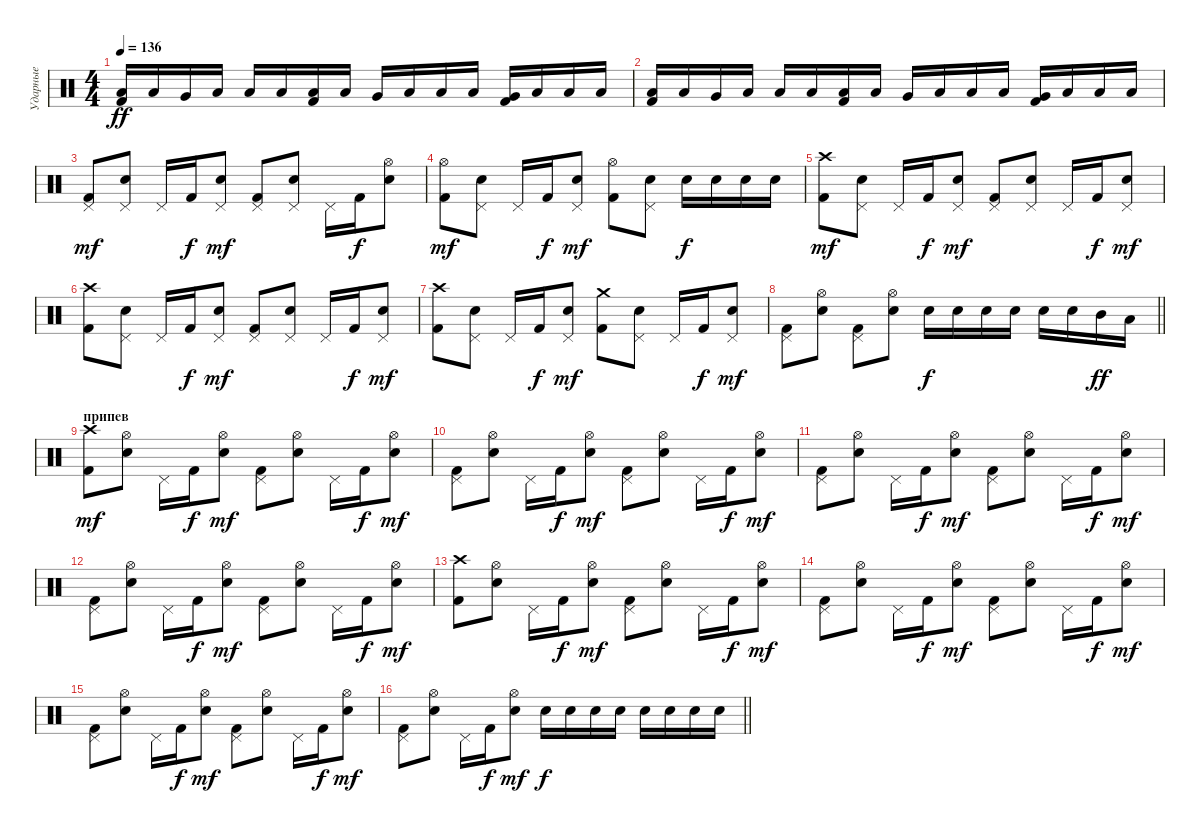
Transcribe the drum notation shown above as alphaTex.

\track ("Ударные" "Ударные") {instrument percussion}
\staff {score}
\articulation defaults
\ts (4 4)
\tempo 136
\clef neutral
\ks c
("Kick (hit) 2" "Low Floor Tom (hit)").16{dy ff} "Low Tom (hit)".16 "Very Low Tom (hit)".16 "Low Floor Tom (hit)".16 "Low Floor Tom (hit)".16 "Low Floor Tom (hit)".16 ("Kick (hit) 2" "Low Floor Tom (hit)").16 "Low Tom (hit)".16 "Very Low Tom (hit)".16 "Low Floor Tom (hit)".16 "Low Floor Tom (hit)".16 "Low Floor Tom (hit)".16 ("Kick (hit) 2" "Very Low Tom (hit)").16 "Low Floor Tom (hit)".16 "Low Floor Tom (hit)".16 "Low Floor Tom (hit)".16 |
("Kick (hit) 2" "Low Floor Tom (hit)").16 "Low Tom (hit)".16 "Very Low Tom (hit)".16 "Low Floor Tom (hit)".16 "Low Floor Tom (hit)".16 "Low Floor Tom (hit)".16 ("Kick (hit) 2" "Low Floor Tom (hit)").16 "Low Tom (hit)".16 "Very Low Tom (hit)".16 "Low Floor Tom (hit)".16 "Low Floor Tom (hit)".16 "Low Floor Tom (hit)".16 ("Kick (hit) 2" "Very Low Tom (hit)").16 "Low Floor Tom (hit)".16 "Low Floor Tom (hit)".16 "Low Floor Tom (hit)".16 |
("Kick (hit) 2" "Pedal Hi-Hat (hit)").8{dy mf} ("Electric Snare (hit)" "Pedal Hi-Hat (hit)").8 "Pedal Hi-Hat (hit)".16 "Kick (hit) 2".16{dy f} ("Electric Snare (hit)" "Pedal Hi-Hat (hit)").8{dy mf} ("Kick (hit) 2" "Pedal Hi-Hat (hit)").8 ("Electric Snare (hit)" "Pedal Hi-Hat (hit)").8 "Pedal Hi-Hat (hit)".16 "Kick (hit) 2".16{dy f} ("Electric Snare (hit)" "Hi-Hat (open)").8 |
("Kick (hit) 2" "Hi-Hat (open)").8{dy mf} ("Electric Snare (hit)" "Pedal Hi-Hat (hit)").8 "Pedal Hi-Hat (hit)".16 "Kick (hit) 2".16{dy f} ("Electric Snare (hit)" "Pedal Hi-Hat (hit)").8{dy mf} ("Kick (hit) 2" "Hi-Hat (open)").8 ("Electric Snare (hit)" "Pedal Hi-Hat (hit)").8 "Electric Snare (hit)".16{dy f} "Electric Snare (hit)".16 "Electric Snare (hit)".16 "Electric Snare (hit)".16 |
("Kick (hit) 2" "Crash high (hit)").8{dy mf} ("Electric Snare (hit)" "Pedal Hi-Hat (hit)").8 "Pedal Hi-Hat (hit)".16 "Kick (hit) 2".16{dy f} ("Electric Snare (hit)" "Pedal Hi-Hat (hit)").8{dy mf} ("Kick (hit) 2" "Pedal Hi-Hat (hit)").8 ("Electric Snare (hit)" "Pedal Hi-Hat (hit)").8 "Pedal Hi-Hat (hit)".16 "Kick (hit) 2".16{dy f} ("Electric Snare (hit)" "Pedal Hi-Hat (hit)").8{dy mf} |
("Kick (hit) 2" "Crash high (hit)").8 ("Electric Snare (hit)" "Pedal Hi-Hat (hit)").8 "Pedal Hi-Hat (hit)".16 "Kick (hit) 2".16{dy f} ("Electric Snare (hit)" "Pedal Hi-Hat (hit)").8{dy mf} ("Kick (hit) 2" "Pedal Hi-Hat (hit)").8 ("Electric Snare (hit)" "Pedal Hi-Hat (hit)").8 "Pedal Hi-Hat (hit)".16 "Kick (hit) 2".16{dy f} ("Electric Snare (hit)" "Pedal Hi-Hat (hit)").8{dy mf} |
("Kick (hit) 2" "Crash high (hit)").8 ("Electric Snare (hit)" "Pedal Hi-Hat (hit)").8 "Pedal Hi-Hat (hit)".16 "Kick (hit) 2".16{dy f} ("Electric Snare (hit)" "Pedal Hi-Hat (hit)").8{dy mf} ("Kick (hit) 2" "Crash medium (hit)").8 ("Electric Snare (hit)" "Pedal Hi-Hat (hit)").8 "Pedal Hi-Hat (hit)".16 "Kick (hit) 2".16{dy f} ("Electric Snare (hit)" "Pedal Hi-Hat (hit)").8{dy mf} |
\barLineRight lightlight
("Kick (hit) 2" "Pedal Hi-Hat (hit)").8 ("Electric Snare (hit)" "Hi-Hat (open)").8 ("Kick (hit) 2" "Pedal Hi-Hat (hit)").8 ("Electric Snare (hit)" "Hi-Hat (open)").8 "Electric Snare (hit)".16{dy f} "Electric Snare (hit)".16 "Electric Snare (hit)".16 "Electric Snare (hit)".16 "Electric Snare (hit)".16 "Electric Snare (hit)".16 "Mid Tom (hit)".16{dy ff} "Low Tom (hit)".16 |
\section ("" "припев")
("Kick (hit) 2" "Crash high (hit)").8{dy mf} ("Electric Snare (hit)" "Hi-Hat (open)").8 "Pedal Hi-Hat (hit)".16 "Kick (hit) 2".16{dy f} ("Electric Snare (hit)" "Hi-Hat (open)").8{dy mf} ("Kick (hit) 2" "Pedal Hi-Hat (hit)").8 ("Electric Snare (hit)" "Hi-Hat (open)").8 "Pedal Hi-Hat (hit)".16 "Kick (hit) 2".16{dy f} ("Electric Snare (hit)" "Hi-Hat (open)").8{dy mf} |
("Kick (hit) 2" "Pedal Hi-Hat (hit)").8 ("Electric Snare (hit)" "Hi-Hat (open)").8 "Pedal Hi-Hat (hit)".16 "Kick (hit) 2".16{dy f} ("Electric Snare (hit)" "Hi-Hat (open)").8{dy mf} ("Kick (hit) 2" "Pedal Hi-Hat (hit)").8 ("Electric Snare (hit)" "Hi-Hat (open)").8 "Pedal Hi-Hat (hit)".16 "Kick (hit) 2".16{dy f} ("Electric Snare (hit)" "Hi-Hat (open)").8{dy mf} |
("Kick (hit) 2" "Pedal Hi-Hat (hit)").8 ("Electric Snare (hit)" "Hi-Hat (open)").8 "Pedal Hi-Hat (hit)".16 "Kick (hit) 2".16{dy f} ("Electric Snare (hit)" "Hi-Hat (open)").8{dy mf} ("Kick (hit) 2" "Pedal Hi-Hat (hit)").8 ("Electric Snare (hit)" "Hi-Hat (open)").8 "Pedal Hi-Hat (hit)".16 "Kick (hit) 2".16{dy f} ("Electric Snare (hit)" "Hi-Hat (open)").8{dy mf} |
("Kick (hit) 2" "Pedal Hi-Hat (hit)").8 ("Electric Snare (hit)" "Hi-Hat (open)").8 "Pedal Hi-Hat (hit)".16 "Kick (hit) 2".16{dy f} ("Electric Snare (hit)" "Hi-Hat (open)").8{dy mf} ("Kick (hit) 2" "Pedal Hi-Hat (hit)").8 ("Electric Snare (hit)" "Hi-Hat (open)").8 "Pedal Hi-Hat (hit)".16 "Kick (hit) 2".16{dy f} ("Electric Snare (hit)" "Hi-Hat (open)").8{dy mf} |
("Kick (hit) 2" "Crash high (hit)").8 ("Electric Snare (hit)" "Hi-Hat (open)").8 "Pedal Hi-Hat (hit)".16 "Kick (hit) 2".16{dy f} ("Electric Snare (hit)" "Hi-Hat (open)").8{dy mf} ("Kick (hit) 2" "Pedal Hi-Hat (hit)").8 ("Electric Snare (hit)" "Hi-Hat (open)").8 "Pedal Hi-Hat (hit)".16 "Kick (hit) 2".16{dy f} ("Electric Snare (hit)" "Hi-Hat (open)").8{dy mf} |
("Kick (hit) 2" "Pedal Hi-Hat (hit)").8 ("Electric Snare (hit)" "Hi-Hat (open)").8 "Pedal Hi-Hat (hit)".16 "Kick (hit) 2".16{dy f} ("Electric Snare (hit)" "Hi-Hat (open)").8{dy mf} ("Kick (hit) 2" "Pedal Hi-Hat (hit)").8 ("Electric Snare (hit)" "Hi-Hat (open)").8 "Pedal Hi-Hat (hit)".16 "Kick (hit) 2".16{dy f} ("Electric Snare (hit)" "Hi-Hat (open)").8{dy mf} |
("Kick (hit) 2" "Pedal Hi-Hat (hit)").8 ("Electric Snare (hit)" "Hi-Hat (open)").8 "Pedal Hi-Hat (hit)".16 "Kick (hit) 2".16{dy f} ("Electric Snare (hit)" "Hi-Hat (open)").8{dy mf} ("Kick (hit) 2" "Pedal Hi-Hat (hit)").8 ("Electric Snare (hit)" "Hi-Hat (open)").8 "Pedal Hi-Hat (hit)".16 "Kick (hit) 2".16{dy f} ("Electric Snare (hit)" "Hi-Hat (open)").8{dy mf} |
\barLineRight lightlight
("Kick (hit) 2" "Pedal Hi-Hat (hit)").8 ("Electric Snare (hit)" "Hi-Hat (open)").8 "Pedal Hi-Hat (hit)".16 "Kick (hit) 2".16{dy f} ("Electric Snare (hit)" "Hi-Hat (open)").8{dy mf} "Electric Snare (hit)".16{dy f} "Electric Snare (hit)".16 "Electric Snare (hit)".16 "Electric Snare (hit)".16 "Electric Snare (hit)".16 "Electric Snare (hit)".16 "Electric Snare (hit)".16 "Electric Snare (hit)".16
